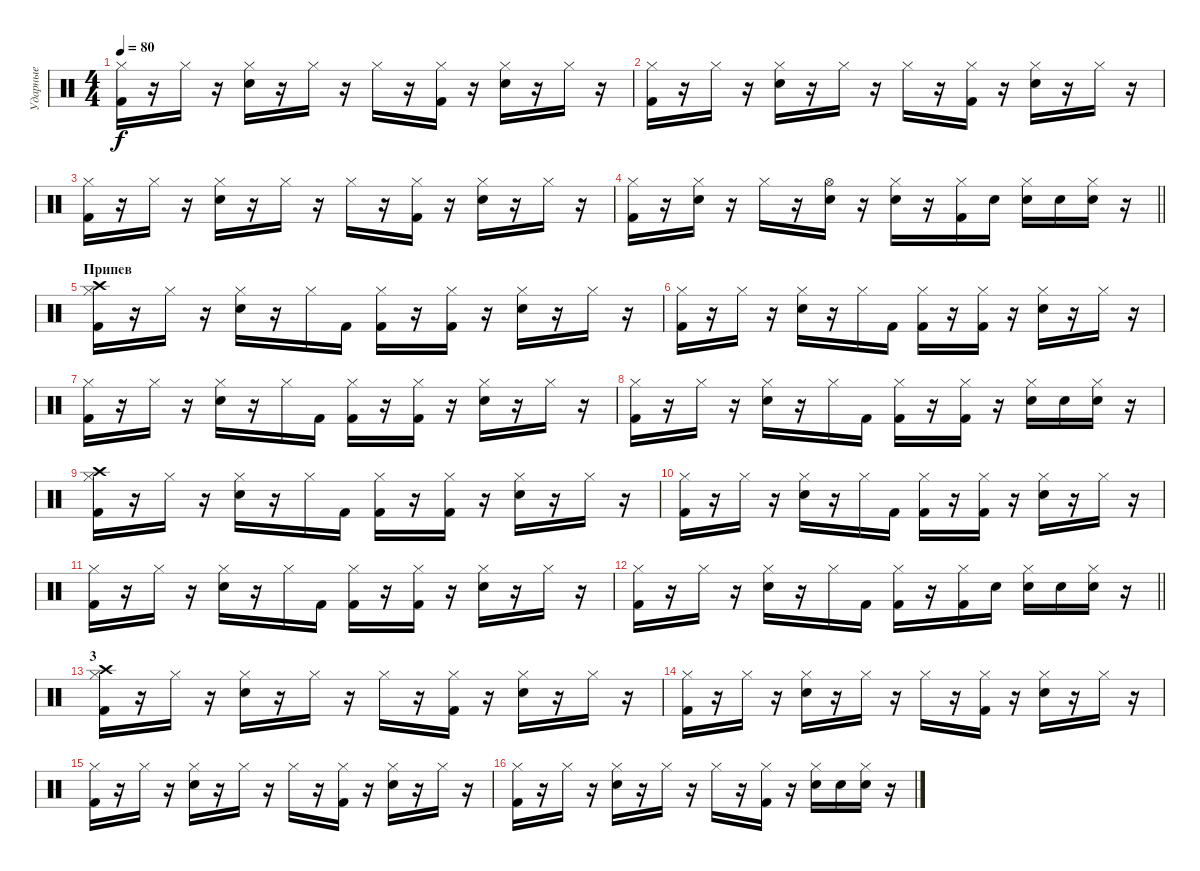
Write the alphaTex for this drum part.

\track ("Ударные" "Ударные") {instrument percussion}
\staff {score}
\articulation defaults
\ts (4 4)
\tempo 80
\clef neutral
\ks c
("Hi-Hat (closed)" "Kick (hit) 2").16{dy f} r.16 "Hi-Hat (closed)".16 r.16 ("Hi-Hat (closed)" "Snare (hit) 2").16 r.16 "Hi-Hat (closed)".16 r.16 "Hi-Hat (closed)".16 r.16 ("Hi-Hat (closed)" "Kick (hit) 2").16 r.16 ("Hi-Hat (closed)" "Snare (hit) 2").16 r.16 "Hi-Hat (closed)".16 r.16 |
("Hi-Hat (closed)" "Kick (hit) 2").16 r.16 "Hi-Hat (closed)".16 r.16 ("Hi-Hat (closed)" "Snare (hit) 2").16 r.16 "Hi-Hat (closed)".16 r.16 "Hi-Hat (closed)".16 r.16 ("Hi-Hat (closed)" "Kick (hit) 2").16 r.16 ("Hi-Hat (closed)" "Snare (hit) 2").16 r.16 "Hi-Hat (closed)".16 r.16 |
("Hi-Hat (closed)" "Kick (hit) 2").16 r.16 "Hi-Hat (closed)".16 r.16 ("Hi-Hat (closed)" "Snare (hit) 2").16 r.16 "Hi-Hat (closed)".16 r.16 "Hi-Hat (closed)".16 r.16 ("Hi-Hat (closed)" "Kick (hit) 2").16 r.16 ("Hi-Hat (closed)" "Snare (hit) 2").16 r.16 "Hi-Hat (closed)".16 r.16 |
\barLineRight lightlight
("Hi-Hat (closed)" "Kick (hit) 2").16 r.16 ("Hi-Hat (closed)" "Snare (hit) 2").16 r.16 "Hi-Hat (closed)".16 r.16 ("Hi-Hat (open)" "Snare (hit) 2").16 r.16 ("Hi-Hat (closed)" "Snare (hit) 2").16 r.16 ("Hi-Hat (closed)" "Kick (hit) 2").16 "Snare (hit) 2".16 ("Hi-Hat (closed)" "Snare (hit) 2").16 "Snare (hit) 2".16 ("Hi-Hat (closed)" "Snare (hit) 2").16 r.16 |
\section ("" "Припев")
("Hi-Hat (closed)" "Kick (hit) 2" "Crash high (hit)").16 r.16 "Hi-Hat (closed)".16 r.16 ("Hi-Hat (closed)" "Snare (hit) 2").16 r.16 "Hi-Hat (closed)".16 "Kick (hit) 2".16 ("Hi-Hat (closed)" "Kick (hit) 2").16 r.16 ("Hi-Hat (closed)" "Kick (hit) 2").16 r.16 ("Hi-Hat (closed)" "Snare (hit) 2").16 r.16 "Hi-Hat (closed)".16 r.16 |
("Hi-Hat (closed)" "Kick (hit) 2").16 r.16 "Hi-Hat (closed)".16 r.16 ("Hi-Hat (closed)" "Snare (hit) 2").16 r.16 "Hi-Hat (closed)".16 "Kick (hit) 2".16 ("Hi-Hat (closed)" "Kick (hit) 2").16 r.16 ("Hi-Hat (closed)" "Kick (hit) 2").16 r.16 ("Hi-Hat (closed)" "Snare (hit) 2").16 r.16 "Hi-Hat (closed)".16 r.16 |
("Hi-Hat (closed)" "Kick (hit) 2").16 r.16 "Hi-Hat (closed)".16 r.16 ("Hi-Hat (closed)" "Snare (hit) 2").16 r.16 "Hi-Hat (closed)".16 "Kick (hit) 2".16 ("Hi-Hat (closed)" "Kick (hit) 2").16 r.16 ("Hi-Hat (closed)" "Kick (hit) 2").16 r.16 ("Hi-Hat (closed)" "Snare (hit) 2").16 r.16 "Hi-Hat (closed)".16 r.16 |
("Hi-Hat (closed)" "Kick (hit) 2").16 r.16 "Hi-Hat (closed)".16 r.16 ("Hi-Hat (closed)" "Snare (hit) 2").16 r.16 "Hi-Hat (closed)".16 "Kick (hit) 2".16 ("Hi-Hat (closed)" "Kick (hit) 2").16 r.16 ("Hi-Hat (closed)" "Kick (hit) 2").16 r.16 ("Hi-Hat (closed)" "Snare (hit) 2").16 "Snare (hit) 2".16 ("Hi-Hat (closed)" "Snare (hit) 2").16 r.16 |
("Hi-Hat (closed)" "Kick (hit) 2" "Crash high (hit)").16 r.16 "Hi-Hat (closed)".16 r.16 ("Hi-Hat (closed)" "Snare (hit) 2").16 r.16 "Hi-Hat (closed)".16 "Kick (hit) 2".16 ("Hi-Hat (closed)" "Kick (hit) 2").16 r.16 ("Hi-Hat (closed)" "Kick (hit) 2").16 r.16 ("Hi-Hat (closed)" "Snare (hit) 2").16 r.16 "Hi-Hat (closed)".16 r.16 |
("Hi-Hat (closed)" "Kick (hit) 2").16 r.16 "Hi-Hat (closed)".16 r.16 ("Hi-Hat (closed)" "Snare (hit) 2").16 r.16 "Hi-Hat (closed)".16 "Kick (hit) 2".16 ("Hi-Hat (closed)" "Kick (hit) 2").16 r.16 ("Hi-Hat (closed)" "Kick (hit) 2").16 r.16 ("Hi-Hat (closed)" "Snare (hit) 2").16 r.16 "Hi-Hat (closed)".16 r.16 |
("Hi-Hat (closed)" "Kick (hit) 2").16 r.16 "Hi-Hat (closed)".16 r.16 ("Hi-Hat (closed)" "Snare (hit) 2").16 r.16 "Hi-Hat (closed)".16 "Kick (hit) 2".16 ("Hi-Hat (closed)" "Kick (hit) 2").16 r.16 ("Hi-Hat (closed)" "Kick (hit) 2").16 r.16 ("Hi-Hat (closed)" "Snare (hit) 2").16 r.16 "Hi-Hat (closed)".16 r.16 |
\barLineRight lightlight
("Hi-Hat (closed)" "Kick (hit) 2").16 r.16 "Hi-Hat (closed)".16 r.16 ("Hi-Hat (closed)" "Snare (hit) 2").16 r.16 "Hi-Hat (closed)".16 "Kick (hit) 2".16 ("Hi-Hat (closed)" "Kick (hit) 2").16 r.16 ("Hi-Hat (closed)" "Kick (hit) 2").16 "Snare (hit) 2".16 ("Hi-Hat (closed)" "Snare (hit) 2").16 "Snare (hit) 2".16 ("Hi-Hat (closed)" "Snare (hit) 2").16 r.16 |
\section ("" "3")
("Hi-Hat (closed)" "Kick (hit) 2" "Crash high (hit)").16 r.16 "Hi-Hat (closed)".16 r.16 ("Hi-Hat (closed)" "Snare (hit) 2").16 r.16 "Hi-Hat (closed)".16 r.16 "Hi-Hat (closed)".16 r.16 ("Hi-Hat (closed)" "Kick (hit) 2").16 r.16 ("Hi-Hat (closed)" "Snare (hit) 2").16 r.16 "Hi-Hat (closed)".16 r.16 |
("Hi-Hat (closed)" "Kick (hit) 2").16 r.16 "Hi-Hat (closed)".16 r.16 ("Hi-Hat (closed)" "Snare (hit) 2").16 r.16 "Hi-Hat (closed)".16 r.16 "Hi-Hat (closed)".16 r.16 ("Hi-Hat (closed)" "Kick (hit) 2").16 r.16 ("Hi-Hat (closed)" "Snare (hit) 2").16 r.16 "Hi-Hat (closed)".16 r.16 |
("Hi-Hat (closed)" "Kick (hit) 2").16 r.16 "Hi-Hat (closed)".16 r.16 ("Hi-Hat (closed)" "Snare (hit) 2").16 r.16 "Hi-Hat (closed)".16 r.16 "Hi-Hat (closed)".16 r.16 ("Hi-Hat (closed)" "Kick (hit) 2").16 r.16 ("Hi-Hat (closed)" "Snare (hit) 2").16 r.16 "Hi-Hat (closed)".16 r.16 |
("Hi-Hat (closed)" "Kick (hit) 2").16 r.16 "Hi-Hat (closed)".16 r.16 ("Hi-Hat (closed)" "Snare (hit) 2").16 r.16 "Hi-Hat (closed)".16 r.16 "Hi-Hat (closed)".16 r.16 ("Hi-Hat (closed)" "Kick (hit) 2").16 r.16 ("Hi-Hat (closed)" "Snare (hit) 2").16 "Snare (hit) 2".16 ("Hi-Hat (closed)" "Snare (hit) 2").16 r.16
